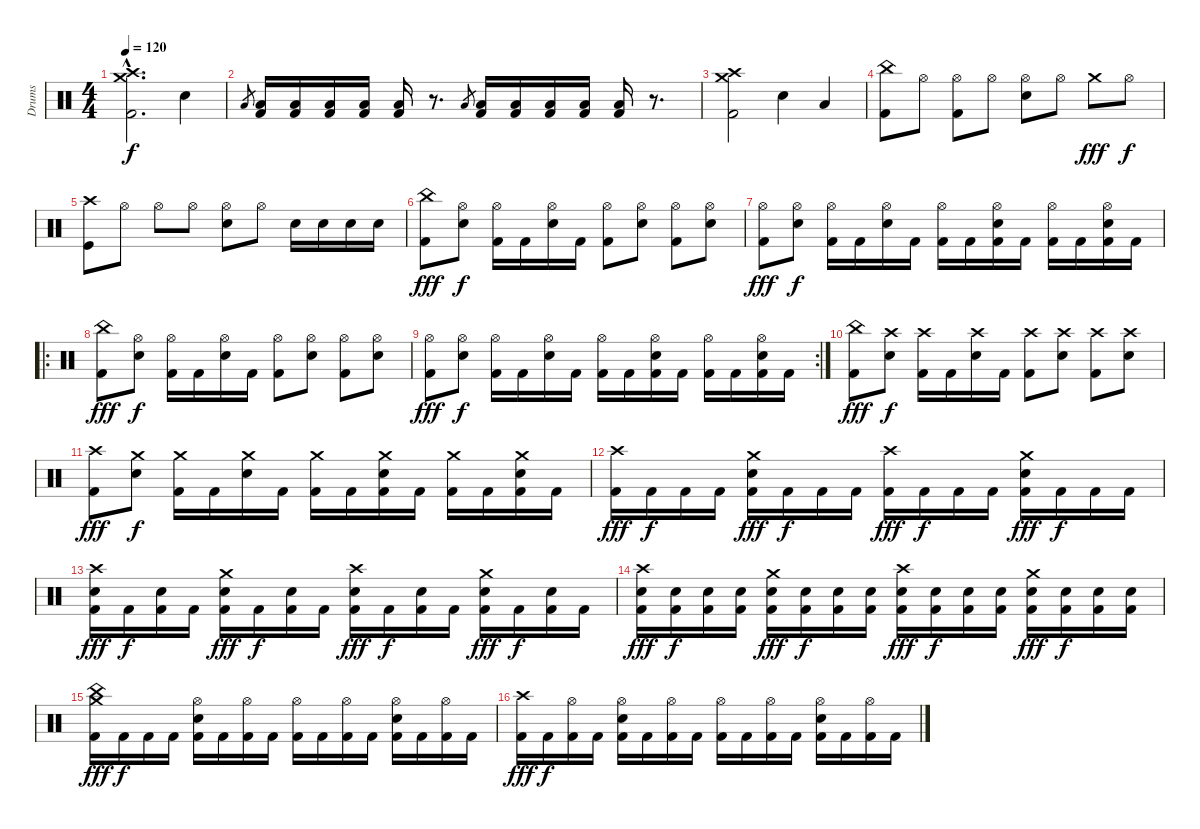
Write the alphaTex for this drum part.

\track ("Drums" "Drums") {instrument percussion}
\staff {score}
\articulation defaults
\ts (4 4)
\tempo 120
\clef neutral
\ks c
("Crash medium (hit)"{hac} "Crash high (hit)"{hac} "Kick (hit) 2"{hac}).2{d dy f} "Electric Snare (hit)".4 |
"Low Tom (hit)".8{gr} ("Low Tom (hit)" "Kick (hit) 2").16 ("Low Tom (hit)" "Kick (hit) 2").16 ("Low Tom (hit)" "Kick (hit) 2").16 ("Low Tom (hit)" "Kick (hit) 2").16 ("Low Tom (hit)" "Kick (hit) 2").16 r.8{d} "Low Tom (hit)".8{gr} ("Low Tom (hit)" "Kick (hit) 2").16 ("Low Tom (hit)" "Kick (hit) 2").16 ("Low Tom (hit)" "Kick (hit) 2").16 ("Low Tom (hit)" "Kick (hit) 2").16 ("Low Tom (hit)" "Kick (hit) 2").16 r.8{d} |
("Crash medium (hit)" "Crash high (hit)" "Kick (hit) 2").2 "Electric Snare (hit)".4 "Low Tom (hit)".4 |
("China (hit)" "Kick (hit) 2").8 "Hi-Hat (open)".8 ("Hi-Hat (open)" "Kick (hit) 2").8 "Hi-Hat (open)".8 ("Hi-Hat (open)" "Electric Snare (hit)").8 "Hi-Hat (open)".8 "Crash medium (hit)".8{dy fff} "Hi-Hat (open)".8{dy f} |
("Crash high (hit)" "Kick (hit)").8 "Hi-Hat (open)".8 "Hi-Hat (open)".8 "Hi-Hat (open)".8 ("Hi-Hat (open)" "Electric Snare (hit)").8 "Hi-Hat (open)".8 "Electric Snare (hit)".16 "Electric Snare (hit)".16 "Electric Snare (hit)".16 "Electric Snare (hit)".16 |
("China (hit)" "Kick (hit) 2").8{dy fff} ("Hi-Hat (open)" "Electric Snare (hit)").8{dy f} ("Hi-Hat (open)" "Kick (hit) 2").16 "Kick (hit) 2".16 ("Hi-Hat (open)" "Electric Snare (hit)").16 "Kick (hit) 2".16 ("Hi-Hat (open)" "Kick (hit) 2").8 ("Hi-Hat (open)" "Electric Snare (hit)").8 ("Hi-Hat (open)" "Kick (hit) 2").8 ("Hi-Hat (open)" "Electric Snare (hit)").8 |
("Hi-Hat (open)" "Kick (hit) 2").8{dy fff} ("Hi-Hat (open)" "Electric Snare (hit)").8{dy f} ("Hi-Hat (open)" "Kick (hit) 2").16 "Kick (hit) 2".16 ("Hi-Hat (open)" "Electric Snare (hit)").16 "Kick (hit) 2".16 ("Hi-Hat (open)" "Kick (hit) 2").16 "Kick (hit) 2".16 ("Hi-Hat (open)" "Electric Snare (hit)" "Kick (hit) 2").16 "Kick (hit) 2".16 ("Hi-Hat (open)" "Kick (hit) 2").16 "Kick (hit) 2".16 ("Hi-Hat (open)" "Electric Snare (hit)" "Kick (hit) 2").16 "Kick (hit) 2".16 |
\ro
("China (hit)" "Kick (hit) 2").8{dy fff} ("Hi-Hat (open)" "Electric Snare (hit)").8{dy f} ("Hi-Hat (open)" "Kick (hit) 2").16 "Kick (hit) 2".16 ("Hi-Hat (open)" "Electric Snare (hit)").16 "Kick (hit) 2".16 ("Hi-Hat (open)" "Kick (hit) 2").8 ("Hi-Hat (open)" "Electric Snare (hit)").8 ("Hi-Hat (open)" "Kick (hit) 2").8 ("Hi-Hat (open)" "Electric Snare (hit)").8 |
\rc 2
("Hi-Hat (open)" "Kick (hit) 2").8{dy fff} ("Hi-Hat (open)" "Electric Snare (hit)").8{dy f} ("Hi-Hat (open)" "Kick (hit) 2").16 "Kick (hit) 2".16 ("Hi-Hat (open)" "Electric Snare (hit)").16 "Kick (hit) 2".16 ("Hi-Hat (open)" "Kick (hit) 2").16 "Kick (hit) 2".16 ("Hi-Hat (open)" "Electric Snare (hit)" "Kick (hit) 2").16 "Kick (hit) 2".16 ("Hi-Hat (open)" "Kick (hit) 2").16 "Kick (hit) 2".16 ("Hi-Hat (open)" "Electric Snare (hit)" "Kick (hit) 2").16 "Kick (hit) 2".16 |
("China (hit)" "Kick (hit) 2").8{dy fff} ("Crash high (hit)" "Electric Snare (hit)").8{dy f} ("Crash high (hit)" "Kick (hit) 2").16 "Kick (hit) 2".16 ("Crash high (hit)" "Electric Snare (hit)").16 "Kick (hit) 2".16 ("Crash high (hit)" "Kick (hit) 2").8 ("Crash high (hit)" "Electric Snare (hit)").8 ("Crash high (hit)" "Kick (hit) 2").8 ("Crash high (hit)" "Electric Snare (hit)").8 |
("Crash high (hit)" "Kick (hit) 2").8{dy fff} ("Crash medium (hit)" "Electric Snare (hit)").8{dy f} ("Crash medium (hit)" "Kick (hit) 2").16 "Kick (hit) 2".16 ("Crash medium (hit)" "Electric Snare (hit)").16 "Kick (hit) 2".16 ("Crash medium (hit)" "Kick (hit) 2").16 "Kick (hit) 2".16 ("Crash medium (hit)" "Electric Snare (hit)" "Kick (hit) 2").16 "Kick (hit) 2".16 ("Crash medium (hit)" "Kick (hit) 2").16 "Kick (hit) 2".16 ("Crash medium (hit)" "Electric Snare (hit)" "Kick (hit) 2").16 "Kick (hit) 2".16 |
("Crash high (hit)" "Kick (hit) 2").16{dy fff} "Kick (hit) 2".16{dy f} "Kick (hit) 2".16 "Kick (hit) 2".16 ("Crash medium (hit)" "Electric Snare (hit)" "Kick (hit) 2").16{dy fff} "Kick (hit) 2".16{dy f} "Kick (hit) 2".16 "Kick (hit) 2".16 ("Crash high (hit)" "Kick (hit) 2").16{dy fff} "Kick (hit) 2".16{dy f} "Kick (hit) 2".16 "Kick (hit) 2".16 ("Crash medium (hit)" "Electric Snare (hit)" "Kick (hit) 2").16{dy fff} "Kick (hit) 2".16{dy f} "Kick (hit) 2".16 "Kick (hit) 2".16 |
("Crash high (hit)" "Electric Snare (hit)" "Kick (hit) 2").16{dy fff} "Kick (hit) 2".16{dy f} ("Electric Snare (hit)" "Kick (hit) 2").16 "Kick (hit) 2".16 ("Crash medium (hit)" "Electric Snare (hit)" "Kick (hit) 2").16{dy fff} "Kick (hit) 2".16{dy f} ("Electric Snare (hit)" "Kick (hit) 2").16 "Kick (hit) 2".16 ("Crash high (hit)" "Electric Snare (hit)" "Kick (hit) 2").16{dy fff} "Kick (hit) 2".16{dy f} ("Electric Snare (hit)" "Kick (hit) 2").16 "Kick (hit) 2".16 ("Crash medium (hit)" "Electric Snare (hit)" "Kick (hit) 2").16{dy fff} "Kick (hit) 2".16{dy f} ("Electric Snare (hit)" "Kick (hit) 2").16 "Kick (hit) 2".16 |
("Crash high (hit)" "Electric Snare (hit)" "Kick (hit) 2").16{dy fff} ("Electric Snare (hit)" "Kick (hit) 2").16{dy f} ("Electric Snare (hit)" "Kick (hit) 2").16 ("Electric Snare (hit)" "Kick (hit) 2").16 ("Crash medium (hit)" "Electric Snare (hit)" "Kick (hit) 2").16{dy fff} ("Electric Snare (hit)" "Kick (hit) 2").16{dy f} ("Electric Snare (hit)" "Kick (hit) 2").16 ("Electric Snare (hit)" "Kick (hit) 2").16 ("Crash high (hit)" "Electric Snare (hit)" "Kick (hit) 2").16{dy fff} ("Electric Snare (hit)" "Kick (hit) 2").16{dy f} ("Electric Snare (hit)" "Kick (hit) 2").16 ("Electric Snare (hit)" "Kick (hit) 2").16 ("Crash medium (hit)" "Electric Snare (hit)" "Kick (hit) 2").16{dy fff} ("Electric Snare (hit)" "Kick (hit) 2").16{dy f} ("Electric Snare (hit)" "Kick (hit) 2").16 ("Electric Snare (hit)" "Kick (hit) 2").16 |
("Crash medium (hit)" "China (hit)" "Kick (hit) 2").16{dy fff} "Kick (hit) 2".16{dy f} "Kick (hit) 2".16 "Kick (hit) 2".16 ("Hi-Hat (open)" "Electric Snare (hit)" "Kick (hit) 2").16 "Kick (hit) 2".16 ("Hi-Hat (open)" "Kick (hit) 2").16 "Kick (hit) 2".16 ("Hi-Hat (open)" "Kick (hit) 2").16 "Kick (hit) 2".16 ("Hi-Hat (open)" "Kick (hit) 2").16 "Kick (hit) 2".16 ("Hi-Hat (open)" "Electric Snare (hit)" "Kick (hit) 2").16 "Kick (hit) 2".16 ("Hi-Hat (open)" "Kick (hit) 2").16 "Kick (hit) 2".16 |
("Crash high (hit)" "Kick (hit) 2").16{dy fff} "Kick (hit) 2".16{dy f} ("Hi-Hat (open)" "Kick (hit) 2").16 "Kick (hit) 2".16 ("Hi-Hat (open)" "Electric Snare (hit)" "Kick (hit) 2").16 "Kick (hit) 2".16 ("Hi-Hat (open)" "Kick (hit) 2").16 "Kick (hit) 2".16 ("Hi-Hat (open)" "Kick (hit) 2").16 "Kick (hit) 2".16 ("Hi-Hat (open)" "Kick (hit) 2").16 "Kick (hit) 2".16 ("Hi-Hat (open)" "Electric Snare (hit)" "Kick (hit) 2").16 "Kick (hit) 2".16 ("Hi-Hat (open)" "Kick (hit) 2").16 "Kick (hit) 2".16
